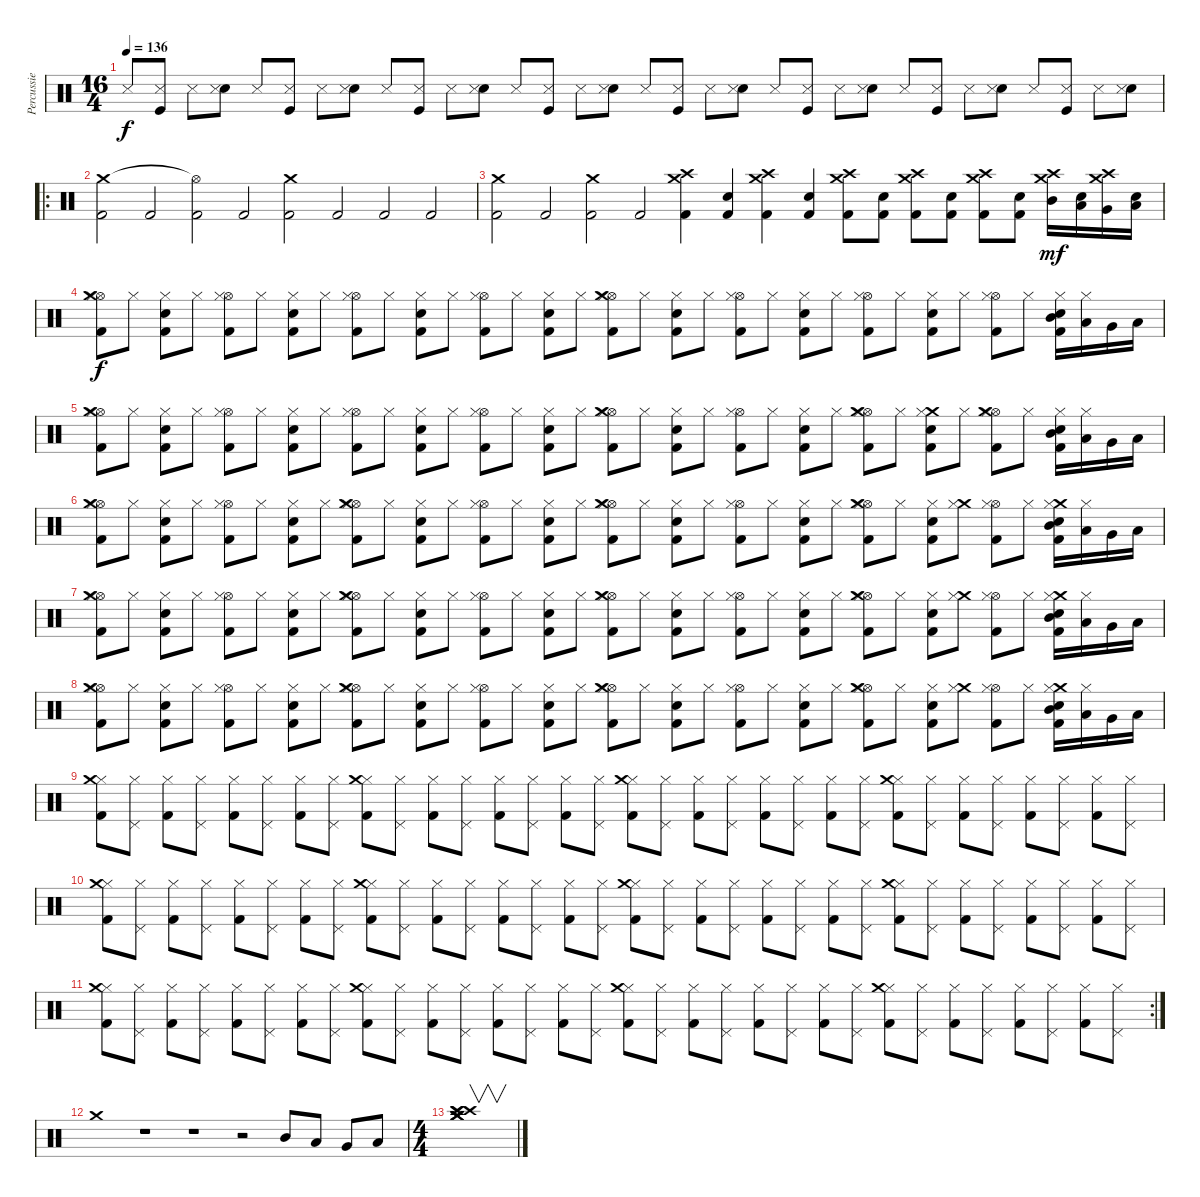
\track ("Percussie" "Percussie") {instrument percussion}
\staff {score}
\articulation defaults
\ts (16 4)
\tempo 136
\clef neutral
\ks c "Snare (side stick) 3".8{dy f}
("Kick (hit)" "Snare (side stick) 3").8 "Snare (side stick) 3".8 ("Hand Clap (hit)" "Snare (side stick) 3").8 "Snare (side stick) 3".8 ("Kick (hit)" "Snare (side stick) 3").8 "Snare (side stick) 3".8 ("Hand Clap (hit)" "Snare (side stick) 3").8 "Snare (side stick) 3".8 ("Kick (hit)" "Snare (side stick) 3").8 "Snare (side stick) 3".8 ("Hand Clap (hit)" "Snare (side stick) 3").8 "Snare (side stick) 3".8 ("Kick (hit)" "Snare (side stick) 3").8 "Snare (side stick) 3".8 ("Hand Clap (hit)" "Snare (side stick) 3").8 "Snare (side stick) 3".8 ("Kick (hit)" "Snare (side stick) 3").8 "Snare (side stick) 3".8 ("Hand Clap (hit)" "Snare (side stick) 3").8 "Snare (side stick) 3".8 ("Kick (hit)" "Snare (side stick) 3").8 "Snare (side stick) 3".8 ("Hand Clap (hit)" "Snare (side stick) 3").8 "Snare (side stick) 3".8 ("Kick (hit)" "Snare (side stick) 3").8 "Snare (side stick) 3".8 ("Hand Clap (hit)" "Snare (side stick) 3").8 "Snare (side stick) 3".8 ("Kick (hit)" "Snare (side stick) 3").8 "Snare (side stick) 3".8 ("Hand Clap (hit)" "Snare (side stick) 3").8 |
\ro
("Kick (hit) 2" "Crash medium (hit)").2 "Kick (hit) 2".2 ("Kick (hit) 2" "Hi-Hat (open)"{t}).2 "Kick (hit) 2".2 ("Kick (hit) 2" "Crash medium (hit)").2 "Kick (hit) 2".2 "Kick (hit) 2".2 "Kick (hit) 2".2 |
("Kick (hit) 2" "Crash medium (hit)").2 "Kick (hit) 2".2 ("Kick (hit) 2" "Crash medium (hit)").2 "Kick (hit) 2".2 ("Kick (hit) 2" "Crash medium (hit)" "Crash high (hit)").4 ("Kick (hit) 2" "Snare (hit) 2").4 ("Kick (hit) 2" "Crash medium (hit)" "Crash high (hit)").4 ("Kick (hit) 2" "Snare (hit) 2").4 ("Kick (hit) 2" "Crash medium (hit)" "Crash high (hit)").8 ("Kick (hit) 2" "Snare (hit) 2").8 ("Kick (hit) 2" "Crash medium (hit)" "Crash high (hit)").8 ("Kick (hit) 2" "Snare (hit) 2").8 ("Kick (hit) 2" "Crash medium (hit)" "Crash high (hit)").8 ("Kick (hit) 2" "Snare (hit) 2").8 ("Mid Tom (hit)" "Crash medium (hit)" "Crash high (hit)").16{dy mf} ("Low Tom (hit)" "Snare (hit) 2").16 ("Very Low Tom (hit)" "Crash medium (hit)" "Crash high (hit)").16 ("Low Floor Tom (hit)" "Snare (hit) 2").16 |
("Kick (hit) 2" "Hi-Hat (open)" "Crash medium (hit)" "Hi-Hat (closed)").8{dy f} "Hi-Hat (closed)".8 ("Kick (hit) 2" "Snare (hit) 2" "Hi-Hat (closed)").8 "Hi-Hat (closed)".8 ("Kick (hit) 2" "Hi-Hat (open)" "Hi-Hat (closed)").8 "Hi-Hat (closed)".8 ("Kick (hit) 2" "Snare (hit) 2" "Hi-Hat (closed)").8 "Hi-Hat (closed)".8 ("Kick (hit) 2" "Hi-Hat (open)" "Hi-Hat (closed)").8 "Hi-Hat (closed)".8 ("Kick (hit) 2" "Snare (hit) 2" "Hi-Hat (closed)").8 "Hi-Hat (closed)".8 ("Kick (hit) 2" "Hi-Hat (open)" "Hi-Hat (closed)").8 "Hi-Hat (closed)".8 ("Kick (hit) 2" "Snare (hit) 2" "Hi-Hat (closed)").8 "Hi-Hat (closed)".8 ("Kick (hit) 2" "Hi-Hat (open)" "Crash medium (hit)" "Hi-Hat (closed)").8 "Hi-Hat (closed)".8 ("Kick (hit) 2" "Snare (hit) 2" "Hi-Hat (closed)").8 "Hi-Hat (closed)".8 ("Kick (hit) 2" "Hi-Hat (open)" "Hi-Hat (closed)").8 "Hi-Hat (closed)".8 ("Kick (hit) 2" "Snare (hit) 2" "Hi-Hat (closed)").8 "Hi-Hat (closed)".8 ("Kick (hit) 2" "Hi-Hat (open)" "Hi-Hat (closed)").8 "Hi-Hat (closed)".8 ("Kick (hit) 2" "Snare (hit) 2" "Hi-Hat (closed)").8 "Hi-Hat (closed)".8 ("Kick (hit) 2" "Hi-Hat (open)" "Hi-Hat (closed)").8 "Hi-Hat (closed)".8 ("Kick (hit) 2" "Snare (hit) 2" "Hi-Hat (closed)" "Mid Tom (hit)").16 ("Hi-Hat (closed)" "Low Tom (hit)").16 "Very Low Tom (hit)".16 "Low Floor Tom (hit)".16 |
("Kick (hit) 2" "Hi-Hat (open)" "Crash medium (hit)" "Hi-Hat (closed)").8 "Hi-Hat (closed)".8 ("Kick (hit) 2" "Snare (hit) 2" "Hi-Hat (closed)").8 "Hi-Hat (closed)".8 ("Kick (hit) 2" "Hi-Hat (open)" "Hi-Hat (closed)").8 "Hi-Hat (closed)".8 ("Kick (hit) 2" "Snare (hit) 2" "Hi-Hat (closed)").8 "Hi-Hat (closed)".8 ("Kick (hit) 2" "Hi-Hat (open)" "Hi-Hat (closed)").8 "Hi-Hat (closed)".8 ("Kick (hit) 2" "Snare (hit) 2" "Hi-Hat (closed)").8 "Hi-Hat (closed)".8 ("Kick (hit) 2" "Hi-Hat (open)" "Hi-Hat (closed)").8 "Hi-Hat (closed)".8 ("Kick (hit) 2" "Snare (hit) 2" "Hi-Hat (closed)").8 "Hi-Hat (closed)".8 ("Kick (hit) 2" "Hi-Hat (open)" "Crash medium (hit)" "Hi-Hat (closed)").8 "Hi-Hat (closed)".8 ("Kick (hit) 2" "Snare (hit) 2" "Hi-Hat (closed)").8 "Hi-Hat (closed)".8 ("Kick (hit) 2" "Hi-Hat (open)" "Hi-Hat (closed)").8 "Hi-Hat (closed)".8 ("Kick (hit) 2" "Snare (hit) 2" "Hi-Hat (closed)").8 "Hi-Hat (closed)".8 ("Kick (hit) 2" "Hi-Hat (open)" "Crash medium (hit)" "Hi-Hat (closed)").8 "Hi-Hat (closed)".8 ("Kick (hit) 2" "Crash medium (hit)" "Snare (hit) 2" "Hi-Hat (closed)").8 "Hi-Hat (closed)".8 ("Kick (hit) 2" "Hi-Hat (open)" "Crash medium (hit)" "Hi-Hat (closed)").8 "Hi-Hat (closed)".8 ("Kick (hit) 2" "Snare (hit) 2" "Hi-Hat (closed)" "Mid Tom (hit)").16 ("Hi-Hat (closed)" "Low Tom (hit)").16 "Very Low Tom (hit)".16 "Low Floor Tom (hit)".16 |
("Kick (hit) 2" "Hi-Hat (open)" "Crash medium (hit)" "Hi-Hat (closed)").8 "Hi-Hat (closed)".8 ("Kick (hit) 2" "Snare (hit) 2" "Hi-Hat (closed)").8 "Hi-Hat (closed)".8 ("Kick (hit) 2" "Hi-Hat (open)" "Hi-Hat (closed)").8 "Hi-Hat (closed)".8 ("Kick (hit) 2" "Snare (hit) 2" "Hi-Hat (closed)").8 "Hi-Hat (closed)".8 ("Kick (hit) 2" "Hi-Hat (open)" "Crash medium (hit)" "Hi-Hat (closed)").8 "Hi-Hat (closed)".8 ("Kick (hit) 2" "Snare (hit) 2" "Hi-Hat (closed)").8 "Hi-Hat (closed)".8 ("Kick (hit) 2" "Hi-Hat (open)" "Hi-Hat (closed)").8 "Hi-Hat (closed)".8 ("Kick (hit) 2" "Snare (hit) 2" "Hi-Hat (closed)").8 "Hi-Hat (closed)".8 ("Kick (hit) 2" "Hi-Hat (open)" "Crash medium (hit)" "Hi-Hat (closed)").8 "Hi-Hat (closed)".8 ("Kick (hit) 2" "Snare (hit) 2" "Hi-Hat (closed)").8 "Hi-Hat (closed)".8 ("Kick (hit) 2" "Hi-Hat (open)" "Hi-Hat (closed)").8 "Hi-Hat (closed)".8 ("Kick (hit) 2" "Snare (hit) 2" "Hi-Hat (closed)").8 "Hi-Hat (closed)".8 ("Kick (hit) 2" "Hi-Hat (open)" "Crash medium (hit)" "Hi-Hat (closed)").8 "Hi-Hat (closed)".8 ("Kick (hit) 2" "Snare (hit) 2" "Hi-Hat (closed)").8 ("Crash medium (hit)" "Hi-Hat (closed)").8 ("Kick (hit) 2" "Hi-Hat (open)" "Hi-Hat (closed)").8 "Hi-Hat (closed)".8 ("Kick (hit) 2" "Crash medium (hit)" "Snare (hit) 2" "Hi-Hat (closed)" "Mid Tom (hit)").16 ("Hi-Hat (closed)" "Low Tom (hit)").16 "Very Low Tom (hit)".16 "Low Floor Tom (hit)".16 |
("Kick (hit) 2" "Hi-Hat (open)" "Crash medium (hit)" "Hi-Hat (closed)").8 "Hi-Hat (closed)".8 ("Kick (hit) 2" "Snare (hit) 2" "Hi-Hat (closed)").8 "Hi-Hat (closed)".8 ("Kick (hit) 2" "Hi-Hat (open)" "Hi-Hat (closed)").8 "Hi-Hat (closed)".8 ("Kick (hit) 2" "Snare (hit) 2" "Hi-Hat (closed)").8 "Hi-Hat (closed)".8 ("Kick (hit) 2" "Hi-Hat (open)" "Crash medium (hit)" "Hi-Hat (closed)").8 "Hi-Hat (closed)".8 ("Kick (hit) 2" "Snare (hit) 2" "Hi-Hat (closed)").8 "Hi-Hat (closed)".8 ("Kick (hit) 2" "Hi-Hat (open)" "Hi-Hat (closed)").8 "Hi-Hat (closed)".8 ("Kick (hit) 2" "Snare (hit) 2" "Hi-Hat (closed)").8 "Hi-Hat (closed)".8 ("Kick (hit) 2" "Hi-Hat (open)" "Crash medium (hit)" "Hi-Hat (closed)").8 "Hi-Hat (closed)".8 ("Kick (hit) 2" "Snare (hit) 2" "Hi-Hat (closed)").8 "Hi-Hat (closed)".8 ("Kick (hit) 2" "Hi-Hat (open)" "Hi-Hat (closed)").8 "Hi-Hat (closed)".8 ("Kick (hit) 2" "Snare (hit) 2" "Hi-Hat (closed)").8 "Hi-Hat (closed)".8 ("Kick (hit) 2" "Hi-Hat (open)" "Crash medium (hit)" "Hi-Hat (closed)").8 "Hi-Hat (closed)".8 ("Kick (hit) 2" "Snare (hit) 2" "Hi-Hat (closed)").8 ("Crash medium (hit)" "Hi-Hat (closed)").8 ("Kick (hit) 2" "Hi-Hat (open)" "Hi-Hat (closed)").8 "Hi-Hat (closed)".8 ("Kick (hit) 2" "Crash medium (hit)" "Snare (hit) 2" "Hi-Hat (closed)" "Mid Tom (hit)").16 ("Hi-Hat (closed)" "Low Tom (hit)").16 "Very Low Tom (hit)".16 "Low Floor Tom (hit)".16 |
("Kick (hit) 2" "Hi-Hat (open)" "Crash medium (hit)" "Hi-Hat (closed)").8 "Hi-Hat (closed)".8 ("Kick (hit) 2" "Snare (hit) 2" "Hi-Hat (closed)").8 "Hi-Hat (closed)".8 ("Kick (hit) 2" "Hi-Hat (open)" "Hi-Hat (closed)").8 "Hi-Hat (closed)".8 ("Kick (hit) 2" "Snare (hit) 2" "Hi-Hat (closed)").8 "Hi-Hat (closed)".8 ("Kick (hit) 2" "Hi-Hat (open)" "Crash medium (hit)" "Hi-Hat (closed)").8 "Hi-Hat (closed)".8 ("Kick (hit) 2" "Snare (hit) 2" "Hi-Hat (closed)").8 "Hi-Hat (closed)".8 ("Kick (hit) 2" "Hi-Hat (open)" "Hi-Hat (closed)").8 "Hi-Hat (closed)".8 ("Kick (hit) 2" "Snare (hit) 2" "Hi-Hat (closed)").8 "Hi-Hat (closed)".8 ("Kick (hit) 2" "Hi-Hat (open)" "Crash medium (hit)" "Hi-Hat (closed)").8 "Hi-Hat (closed)".8 ("Kick (hit) 2" "Snare (hit) 2" "Hi-Hat (closed)").8 "Hi-Hat (closed)".8 ("Kick (hit) 2" "Hi-Hat (open)" "Hi-Hat (closed)").8 "Hi-Hat (closed)".8 ("Kick (hit) 2" "Snare (hit) 2" "Hi-Hat (closed)").8 "Hi-Hat (closed)".8 ("Kick (hit) 2" "Hi-Hat (open)" "Crash medium (hit)" "Hi-Hat (closed)").8 "Hi-Hat (closed)".8 ("Kick (hit) 2" "Snare (hit) 2" "Hi-Hat (closed)").8 ("Crash medium (hit)" "Hi-Hat (closed)").8 ("Kick (hit) 2" "Hi-Hat (open)" "Hi-Hat (closed)").8 "Hi-Hat (closed)".8 ("Kick (hit) 2" "Crash medium (hit)" "Snare (hit) 2" "Hi-Hat (closed)" "Mid Tom (hit)").16 ("Hi-Hat (closed)" "Low Tom (hit)").16 "Very Low Tom (hit)".16 "Low Floor Tom (hit)".16 |
("Kick (hit) 2" "Hi-Hat (closed)" "Crash medium (hit)").8 ("Pedal Hi-Hat (hit)" "Hi-Hat (closed)").8 ("Kick (hit) 2" "Hi-Hat (closed)").8 ("Pedal Hi-Hat (hit)" "Hi-Hat (closed)").8 ("Kick (hit) 2" "Hi-Hat (closed)").8 ("Pedal Hi-Hat (hit)" "Hi-Hat (closed)").8 ("Kick (hit) 2" "Hi-Hat (closed)").8 ("Pedal Hi-Hat (hit)" "Hi-Hat (closed)").8 ("Kick (hit) 2" "Hi-Hat (closed)" "Crash medium (hit)").8 ("Pedal Hi-Hat (hit)" "Hi-Hat (closed)").8 ("Kick (hit) 2" "Hi-Hat (closed)").8 ("Pedal Hi-Hat (hit)" "Hi-Hat (closed)").8 ("Kick (hit) 2" "Hi-Hat (closed)").8 ("Pedal Hi-Hat (hit)" "Hi-Hat (closed)").8 ("Kick (hit) 2" "Hi-Hat (closed)").8 ("Pedal Hi-Hat (hit)" "Hi-Hat (closed)").8 ("Kick (hit) 2" "Hi-Hat (closed)" "Crash medium (hit)").8 ("Pedal Hi-Hat (hit)" "Hi-Hat (closed)").8 ("Kick (hit) 2" "Hi-Hat (closed)").8 ("Pedal Hi-Hat (hit)" "Hi-Hat (closed)").8 ("Kick (hit) 2" "Hi-Hat (closed)").8 ("Pedal Hi-Hat (hit)" "Hi-Hat (closed)").8 ("Kick (hit) 2" "Hi-Hat (closed)").8 ("Pedal Hi-Hat (hit)" "Hi-Hat (closed)").8 ("Kick (hit) 2" "Hi-Hat (closed)" "Crash medium (hit)").8 ("Pedal Hi-Hat (hit)" "Hi-Hat (closed)").8 ("Kick (hit) 2" "Hi-Hat (closed)").8 ("Pedal Hi-Hat (hit)" "Hi-Hat (closed)").8 ("Kick (hit) 2" "Hi-Hat (closed)").8 ("Pedal Hi-Hat (hit)" "Hi-Hat (closed)").8 ("Kick (hit) 2" "Hi-Hat (closed)").8 ("Pedal Hi-Hat (hit)" "Hi-Hat (closed)").8 |
("Kick (hit) 2" "Hi-Hat (closed)" "Crash medium (hit)").8 ("Pedal Hi-Hat (hit)" "Hi-Hat (closed)").8 ("Kick (hit) 2" "Hi-Hat (closed)").8 ("Pedal Hi-Hat (hit)" "Hi-Hat (closed)").8 ("Kick (hit) 2" "Hi-Hat (closed)").8 ("Pedal Hi-Hat (hit)" "Hi-Hat (closed)").8 ("Kick (hit) 2" "Hi-Hat (closed)").8 ("Pedal Hi-Hat (hit)" "Hi-Hat (closed)").8 ("Kick (hit) 2" "Hi-Hat (closed)" "Crash medium (hit)").8 ("Pedal Hi-Hat (hit)" "Hi-Hat (closed)").8 ("Kick (hit) 2" "Hi-Hat (closed)").8 ("Pedal Hi-Hat (hit)" "Hi-Hat (closed)").8 ("Kick (hit) 2" "Hi-Hat (closed)").8 ("Pedal Hi-Hat (hit)" "Hi-Hat (closed)").8 ("Kick (hit) 2" "Hi-Hat (closed)").8 ("Pedal Hi-Hat (hit)" "Hi-Hat (closed)").8 ("Kick (hit) 2" "Hi-Hat (closed)" "Crash medium (hit)").8 ("Pedal Hi-Hat (hit)" "Hi-Hat (closed)").8 ("Kick (hit) 2" "Hi-Hat (closed)").8 ("Pedal Hi-Hat (hit)" "Hi-Hat (closed)").8 ("Kick (hit) 2" "Hi-Hat (closed)").8 ("Pedal Hi-Hat (hit)" "Hi-Hat (closed)").8 ("Kick (hit) 2" "Hi-Hat (closed)").8 ("Pedal Hi-Hat (hit)" "Hi-Hat (closed)").8 ("Kick (hit) 2" "Hi-Hat (closed)" "Crash medium (hit)").8 ("Pedal Hi-Hat (hit)" "Hi-Hat (closed)").8 ("Kick (hit) 2" "Hi-Hat (closed)").8 ("Pedal Hi-Hat (hit)" "Hi-Hat (closed)").8 ("Kick (hit) 2" "Hi-Hat (closed)").8 ("Pedal Hi-Hat (hit)" "Hi-Hat (closed)").8 ("Kick (hit) 2" "Hi-Hat (closed)").8 ("Pedal Hi-Hat (hit)" "Hi-Hat (closed)").8 |
\rc 2
("Kick (hit) 2" "Hi-Hat (closed)" "Crash medium (hit)").8 ("Pedal Hi-Hat (hit)" "Hi-Hat (closed)").8 ("Kick (hit) 2" "Hi-Hat (closed)").8 ("Pedal Hi-Hat (hit)" "Hi-Hat (closed)").8 ("Kick (hit) 2" "Hi-Hat (closed)").8 ("Pedal Hi-Hat (hit)" "Hi-Hat (closed)").8 ("Kick (hit) 2" "Hi-Hat (closed)").8 ("Pedal Hi-Hat (hit)" "Hi-Hat (closed)").8 ("Kick (hit) 2" "Hi-Hat (closed)" "Crash medium (hit)").8 ("Pedal Hi-Hat (hit)" "Hi-Hat (closed)").8 ("Kick (hit) 2" "Hi-Hat (closed)").8 ("Pedal Hi-Hat (hit)" "Hi-Hat (closed)").8 ("Kick (hit) 2" "Hi-Hat (closed)").8 ("Pedal Hi-Hat (hit)" "Hi-Hat (closed)").8 ("Kick (hit) 2" "Hi-Hat (closed)").8 ("Pedal Hi-Hat (hit)" "Hi-Hat (closed)").8 ("Kick (hit) 2" "Hi-Hat (closed)" "Crash medium (hit)").8 ("Pedal Hi-Hat (hit)" "Hi-Hat (closed)").8 ("Kick (hit) 2" "Hi-Hat (closed)").8 ("Pedal Hi-Hat (hit)" "Hi-Hat (closed)").8 ("Kick (hit) 2" "Hi-Hat (closed)").8 ("Pedal Hi-Hat (hit)" "Hi-Hat (closed)").8 ("Kick (hit) 2" "Hi-Hat (closed)").8 ("Pedal Hi-Hat (hit)" "Hi-Hat (closed)").8 ("Kick (hit) 2" "Hi-Hat (closed)" "Crash medium (hit)").8 ("Pedal Hi-Hat (hit)" "Hi-Hat (closed)").8 ("Kick (hit) 2" "Hi-Hat (closed)").8 ("Pedal Hi-Hat (hit)" "Hi-Hat (closed)").8 ("Kick (hit) 2" "Hi-Hat (closed)").8 ("Pedal Hi-Hat (hit)" "Hi-Hat (closed)").8 ("Kick (hit) 2" "Hi-Hat (closed)").8 ("Pedal Hi-Hat (hit)" "Hi-Hat (closed)").8 |
"Crash medium (hit)".1 r.1 r.1 r.2 "Mid Tom (hit)".8 "Low Tom (hit)".8 "Very Low Tom (hit)".8 "Low Floor Tom (hit)".8 |
\ts (4 4)
("Crash medium (hit)" "Crash high (hit)" "Crash medium (hit)" "Crash high (hit)" "Crash medium (hit)" "Crash high (hit)").1{v}
